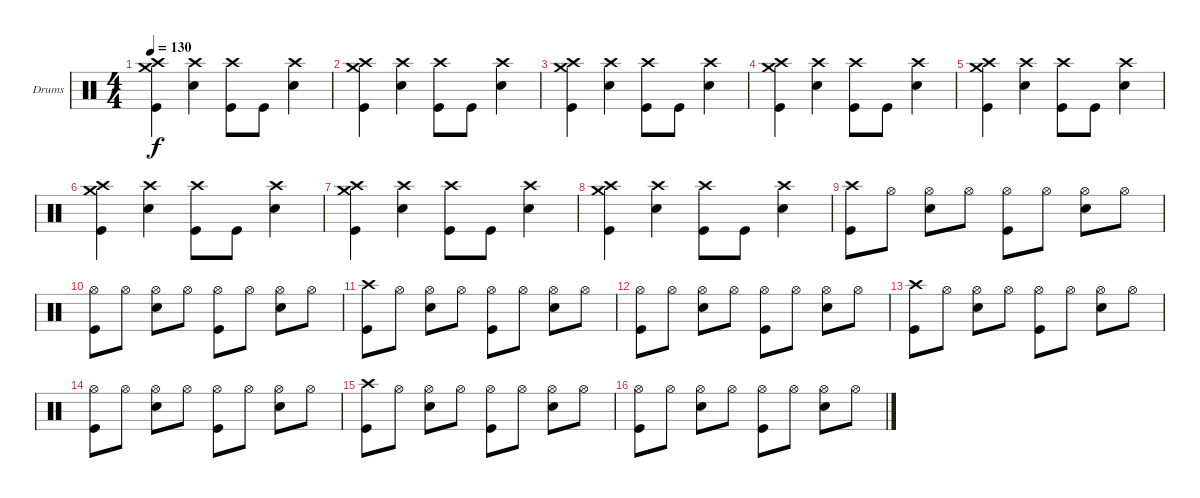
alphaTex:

\bracketExtendMode groupsimilarinstruments
\firstSystemTrackNameOrientation horizontal
\otherSystemsTrackNameOrientation horizontal
\track ("Drumkit" "Drums") {instrument percussion}
\staff {score}
\articulation defaults
\ts (4 4)
\tempo 130
\clef neutral
\ks c
("Kick (hit)" "Crash high (hit)" "Crash medium (hit)").4{dy f} ("Snare (hit) 2" "Crash high (hit)").4 ("Kick (hit)" "Crash high (hit)").8 "Kick (hit)".8 ("Snare (hit) 2" "Crash high (hit)").4 |
("Kick (hit)" "Crash high (hit)" "Crash medium (hit)").4 ("Snare (hit) 2" "Crash high (hit)").4 ("Kick (hit)" "Crash high (hit)").8 "Kick (hit)".8 ("Snare (hit) 2" "Crash high (hit)").4 |
("Kick (hit)" "Crash high (hit)" "Crash medium (hit)").4 ("Snare (hit) 2" "Crash high (hit)").4 ("Kick (hit)" "Crash high (hit)").8 "Kick (hit)".8 ("Snare (hit) 2" "Crash high (hit)").4 |
("Kick (hit)" "Crash high (hit)" "Crash medium (hit)").4 ("Snare (hit) 2" "Crash high (hit)").4 ("Kick (hit)" "Crash high (hit)").8 "Kick (hit)".8 ("Snare (hit) 2" "Crash high (hit)").4 |
("Kick (hit)" "Crash high (hit)" "Crash medium (hit)").4 ("Snare (hit) 2" "Crash high (hit)").4 ("Kick (hit)" "Crash high (hit)").8 "Kick (hit)".8 ("Snare (hit) 2" "Crash high (hit)").4 |
("Kick (hit)" "Crash high (hit)" "Crash medium (hit)").4 ("Snare (hit) 2" "Crash high (hit)").4 ("Kick (hit)" "Crash high (hit)").8 "Kick (hit)".8 ("Snare (hit) 2" "Crash high (hit)").4 |
("Kick (hit)" "Crash high (hit)" "Crash medium (hit)").4 ("Snare (hit) 2" "Crash high (hit)").4 ("Kick (hit)" "Crash high (hit)").8 "Kick (hit)".8 ("Snare (hit) 2" "Crash high (hit)").4 |
("Kick (hit)" "Crash high (hit)" "Crash medium (hit)").4 ("Snare (hit) 2" "Crash high (hit)").4 ("Kick (hit)" "Crash high (hit)").8 "Kick (hit)".8 ("Snare (hit) 2" "Crash high (hit)").4 |
("Kick (hit)" "Crash high (hit)").8 "Hi-Hat (open)".8 ("Hi-Hat (open)" "Snare (hit) 2").8 "Hi-Hat (open)".8 ("Hi-Hat (open)" "Kick (hit)").8 "Hi-Hat (open)".8 ("Hi-Hat (open)" "Snare (hit) 2").8 "Hi-Hat (open)".8 |
("Hi-Hat (open)" "Kick (hit)").8 "Hi-Hat (open)".8 ("Hi-Hat (open)" "Snare (hit) 2").8 "Hi-Hat (open)".8 ("Hi-Hat (open)" "Kick (hit)").8 "Hi-Hat (open)".8 ("Hi-Hat (open)" "Snare (hit) 2").8 "Hi-Hat (open)".8 |
("Kick (hit)" "Crash high (hit)").8 "Hi-Hat (open)".8 ("Hi-Hat (open)" "Snare (hit) 2").8 "Hi-Hat (open)".8 ("Hi-Hat (open)" "Kick (hit)").8 "Hi-Hat (open)".8 ("Hi-Hat (open)" "Snare (hit) 2").8 "Hi-Hat (open)".8 |
("Hi-Hat (open)" "Kick (hit)").8 "Hi-Hat (open)".8 ("Hi-Hat (open)" "Snare (hit) 2").8 "Hi-Hat (open)".8 ("Hi-Hat (open)" "Kick (hit)").8 "Hi-Hat (open)".8 ("Hi-Hat (open)" "Snare (hit) 2").8 "Hi-Hat (open)".8 |
("Kick (hit)" "Crash high (hit)").8 "Hi-Hat (open)".8 ("Hi-Hat (open)" "Snare (hit) 2").8 "Hi-Hat (open)".8 ("Hi-Hat (open)" "Kick (hit)").8 "Hi-Hat (open)".8 ("Hi-Hat (open)" "Snare (hit) 2").8 "Hi-Hat (open)".8 |
("Hi-Hat (open)" "Kick (hit)").8 "Hi-Hat (open)".8 ("Hi-Hat (open)" "Snare (hit) 2").8 "Hi-Hat (open)".8 ("Hi-Hat (open)" "Kick (hit)").8 "Hi-Hat (open)".8 ("Hi-Hat (open)" "Snare (hit) 2").8 "Hi-Hat (open)".8 |
("Kick (hit)" "Crash high (hit)").8 "Hi-Hat (open)".8 ("Hi-Hat (open)" "Snare (hit) 2").8 "Hi-Hat (open)".8 ("Hi-Hat (open)" "Kick (hit)").8 "Hi-Hat (open)".8 ("Hi-Hat (open)" "Snare (hit) 2").8 "Hi-Hat (open)".8 |
("Hi-Hat (open)" "Kick (hit)").8 "Hi-Hat (open)".8 ("Hi-Hat (open)" "Snare (hit) 2").8 "Hi-Hat (open)".8 ("Hi-Hat (open)" "Kick (hit)").8 "Hi-Hat (open)".8 ("Hi-Hat (open)" "Snare (hit) 2").8 "Hi-Hat (open)".8
